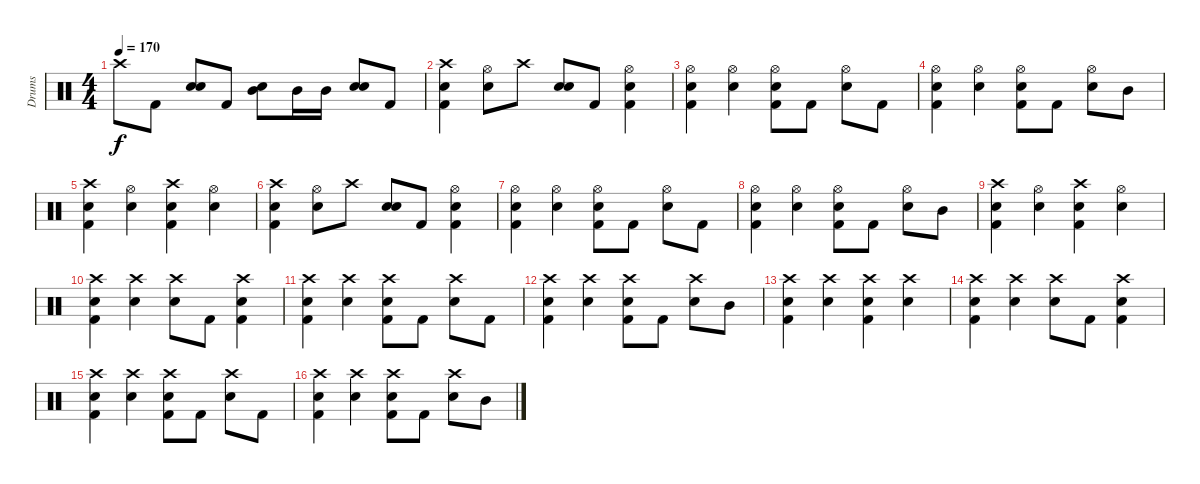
\track ("Drums" "Drums") {instrument percussion}
\staff {score}
\articulation defaults
\ts (4 4)
\tempo 170
\clef neutral
\ks c "Crash high (hit)".8{dy f} "Kick (hit) 2".8
("Snare (hit) 2" "Snare (hit) 2").8{bd 120} "Kick (hit) 2".8 ("Mid Tom (hit)" "Snare (hit) 2").8 "Mid Tom (hit)".16 "Mid Tom (hit)".16 ("Snare (hit) 2" "Snare (hit) 2").8{bd 120} "Kick (hit) 2".8 |
("Crash high (hit)" "Snare (hit) 2" "Kick (hit) 2").4 ("Hi-Hat (open)" "Snare (hit) 2").8 "Crash high (hit)".8 ("Snare (hit) 2" "Snare (hit) 2").8{bd 120} "Kick (hit) 2".8 ("Hi-Hat (open)" "Snare (hit) 2" "Kick (hit) 2").4 |
("Hi-Hat (open)" "Snare (hit) 2" "Kick (hit) 2").4 ("Hi-Hat (open)" "Snare (hit) 2").4 ("Hi-Hat (open)" "Snare (hit) 2" "Kick (hit) 2").8 "Kick (hit) 2".8 ("Hi-Hat (open)" "Snare (hit) 2").8 "Kick (hit) 2".8 |
("Hi-Hat (open)" "Snare (hit) 2" "Kick (hit) 2").4 ("Hi-Hat (open)" "Snare (hit) 2").4 ("Hi-Hat (open)" "Snare (hit) 2" "Kick (hit) 2").8 "Kick (hit) 2".8 ("Hi-Hat (open)" "Snare (hit) 2").8 "Mid Tom (hit)".8 |
("Crash high (hit)" "Snare (hit) 2" "Kick (hit) 2").4 ("Hi-Hat (open)" "Snare (hit) 2").4 ("Crash high (hit)" "Snare (hit) 2" "Kick (hit) 2").4 ("Hi-Hat (open)" "Snare (hit) 2").4 |
("Crash high (hit)" "Snare (hit) 2" "Kick (hit) 2").4 ("Hi-Hat (open)" "Snare (hit) 2").8 "Crash high (hit)".8 ("Snare (hit) 2" "Snare (hit) 2").8{bd 120} "Kick (hit) 2".8 ("Hi-Hat (open)" "Snare (hit) 2" "Kick (hit) 2").4 |
("Hi-Hat (open)" "Snare (hit) 2" "Kick (hit) 2").4 ("Hi-Hat (open)" "Snare (hit) 2").4 ("Hi-Hat (open)" "Snare (hit) 2" "Kick (hit) 2").8 "Kick (hit) 2".8 ("Hi-Hat (open)" "Snare (hit) 2").8 "Kick (hit) 2".8 |
("Hi-Hat (open)" "Snare (hit) 2" "Kick (hit) 2").4 ("Hi-Hat (open)" "Snare (hit) 2").4 ("Hi-Hat (open)" "Snare (hit) 2" "Kick (hit) 2").8 "Kick (hit) 2".8 ("Hi-Hat (open)" "Snare (hit) 2").8 "Mid Tom (hit)".8 |
("Crash high (hit)" "Snare (hit) 2" "Kick (hit) 2").4 ("Hi-Hat (open)" "Snare (hit) 2").4 ("Crash high (hit)" "Snare (hit) 2" "Kick (hit) 2").4 ("Hi-Hat (open)" "Snare (hit) 2").4 |
("Crash high (hit)" "Snare (hit) 2" "Kick (hit) 2").4 ("Crash high (hit)" "Snare (hit) 2").4 ("Crash high (hit)" "Snare (hit) 2").8 "Kick (hit) 2".8 ("Crash high (hit)" "Snare (hit) 2" "Kick (hit) 2").4 |
("Crash high (hit)" "Snare (hit) 2" "Kick (hit) 2").4 ("Crash high (hit)" "Snare (hit) 2").4 ("Crash high (hit)" "Snare (hit) 2" "Kick (hit) 2").8 "Kick (hit) 2".8 ("Crash high (hit)" "Snare (hit) 2").8 "Kick (hit) 2".8 |
("Crash high (hit)" "Snare (hit) 2" "Kick (hit) 2").4 ("Crash high (hit)" "Snare (hit) 2").4 ("Crash high (hit)" "Snare (hit) 2" "Kick (hit) 2").8 "Kick (hit) 2".8 ("Crash high (hit)" "Snare (hit) 2").8 "Mid Tom (hit)".8 |
("Crash high (hit)" "Snare (hit) 2" "Kick (hit) 2").4 ("Crash high (hit)" "Snare (hit) 2").4 ("Crash high (hit)" "Snare (hit) 2" "Kick (hit) 2").4 ("Crash high (hit)" "Snare (hit) 2").4 |
("Crash high (hit)" "Snare (hit) 2" "Kick (hit) 2").4 ("Crash high (hit)" "Snare (hit) 2").4 ("Crash high (hit)" "Snare (hit) 2").8 "Kick (hit) 2".8 ("Crash high (hit)" "Snare (hit) 2" "Kick (hit) 2").4 |
("Crash high (hit)" "Snare (hit) 2" "Kick (hit) 2").4 ("Crash high (hit)" "Snare (hit) 2").4 ("Crash high (hit)" "Snare (hit) 2" "Kick (hit) 2").8 "Kick (hit) 2".8 ("Crash high (hit)" "Snare (hit) 2").8 "Kick (hit) 2".8 |
("Crash high (hit)" "Snare (hit) 2" "Kick (hit) 2").4 ("Crash high (hit)" "Snare (hit) 2").4 ("Crash high (hit)" "Snare (hit) 2" "Kick (hit) 2").8 "Kick (hit) 2".8 ("Crash high (hit)" "Snare (hit) 2").8 "Mid Tom (hit)".8
